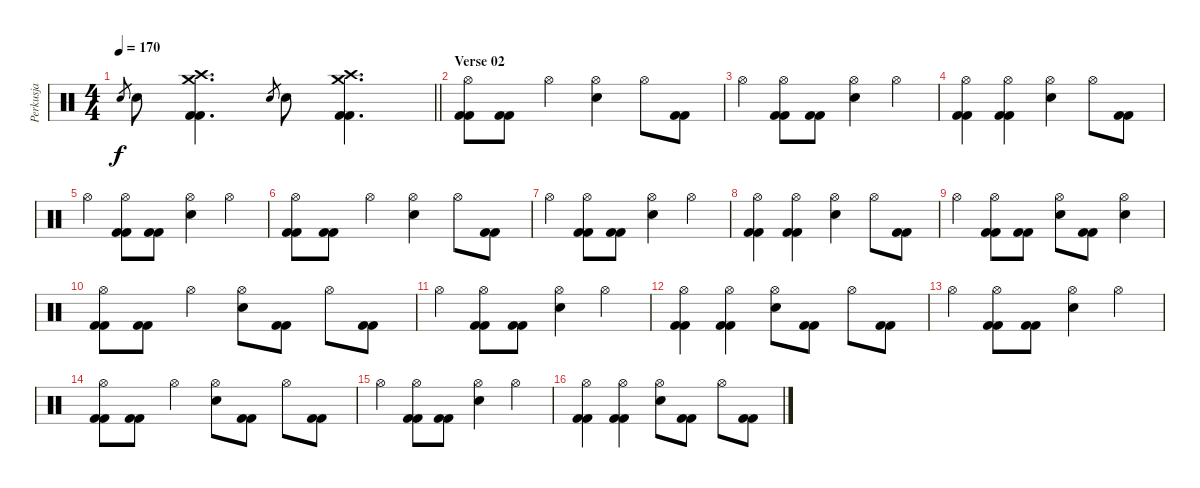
\track ("Perkusja" "Perkusja") {instrument percussion}
\staff {score}
\articulation defaults
\ts (4 4)
\tempo 170
\clef neutral
\barLineRight lightlight
\ks c "Electric Snare (hit)".8{gr dy f} "Electric Snare (hit)".8
("Crash medium (hit)" "Crash high (hit)" "Kick (hit) 2" "Kick (hit) 2").4{d} "Electric Snare (hit)".8{gr} "Electric Snare (hit)".8 ("Crash medium (hit)" "Crash high (hit)" "Kick (hit) 2" "Kick (hit) 2").4{d} |
\section ("" "Verse 02")
("Hi-Hat (open)" "Kick (hit) 2" "Kick (hit) 2").8 ("Kick (hit) 2" "Kick (hit) 2").8 "Hi-Hat (open)".4 ("Hi-Hat (open)" "Electric Snare (hit)").4 "Hi-Hat (open)".8 ("Kick (hit) 2" "Kick (hit) 2").8 |
"Hi-Hat (open)".4 ("Hi-Hat (open)" "Kick (hit) 2" "Kick (hit) 2").8 ("Kick (hit) 2" "Kick (hit) 2").8 ("Hi-Hat (open)" "Electric Snare (hit)").4 "Hi-Hat (open)".4 |
("Hi-Hat (open)" "Kick (hit) 2" "Kick (hit) 2").4 ("Hi-Hat (open)" "Kick (hit) 2" "Kick (hit) 2").4 ("Hi-Hat (open)" "Electric Snare (hit)").4 "Hi-Hat (open)".8 ("Kick (hit) 2" "Kick (hit) 2").8 |
"Hi-Hat (open)".4 ("Hi-Hat (open)" "Kick (hit) 2" "Kick (hit) 2").8 ("Kick (hit) 2" "Kick (hit) 2").8 ("Hi-Hat (open)" "Electric Snare (hit)").4 "Hi-Hat (open)".4 |
("Hi-Hat (open)" "Kick (hit) 2" "Kick (hit) 2").8 ("Kick (hit) 2" "Kick (hit) 2").8 "Hi-Hat (open)".4 ("Hi-Hat (open)" "Electric Snare (hit)").4 "Hi-Hat (open)".8 ("Kick (hit) 2" "Kick (hit) 2").8 |
"Hi-Hat (open)".4 ("Hi-Hat (open)" "Kick (hit) 2" "Kick (hit) 2").8 ("Kick (hit) 2" "Kick (hit) 2").8 ("Hi-Hat (open)" "Electric Snare (hit)").4 "Hi-Hat (open)".4 |
("Hi-Hat (open)" "Kick (hit) 2" "Kick (hit) 2").4 ("Hi-Hat (open)" "Kick (hit) 2" "Kick (hit) 2").4 ("Hi-Hat (open)" "Electric Snare (hit)").4 "Hi-Hat (open)".8 ("Kick (hit) 2" "Kick (hit) 2").8 |
"Hi-Hat (open)".4 ("Hi-Hat (open)" "Kick (hit) 2" "Kick (hit) 2").8 ("Kick (hit) 2" "Kick (hit) 2").8 ("Hi-Hat (open)" "Electric Snare (hit)").8 ("Kick (hit) 2" "Kick (hit) 2").8 ("Hi-Hat (open)" "Electric Snare (hit)").4 |
("Hi-Hat (open)" "Kick (hit) 2" "Kick (hit) 2").8 ("Kick (hit) 2" "Kick (hit) 2").8 "Hi-Hat (open)".4 ("Hi-Hat (open)" "Electric Snare (hit)").8 ("Kick (hit) 2" "Kick (hit) 2").8 "Hi-Hat (open)".8 ("Kick (hit) 2" "Kick (hit) 2").8 |
"Hi-Hat (open)".4 ("Hi-Hat (open)" "Kick (hit) 2" "Kick (hit) 2").8 ("Kick (hit) 2" "Kick (hit) 2").8 ("Hi-Hat (open)" "Electric Snare (hit)").4 "Hi-Hat (open)".4 |
("Hi-Hat (open)" "Kick (hit) 2" "Kick (hit) 2").4 ("Hi-Hat (open)" "Kick (hit) 2" "Kick (hit) 2").4 ("Hi-Hat (open)" "Electric Snare (hit)").8 ("Kick (hit) 2" "Kick (hit) 2").8 "Hi-Hat (open)".8 ("Kick (hit) 2" "Kick (hit) 2").8 |
"Hi-Hat (open)".4 ("Hi-Hat (open)" "Kick (hit) 2" "Kick (hit) 2").8 ("Kick (hit) 2" "Kick (hit) 2").8 ("Hi-Hat (open)" "Electric Snare (hit)").4 "Hi-Hat (open)".4 |
("Hi-Hat (open)" "Kick (hit) 2" "Kick (hit) 2").8 ("Kick (hit) 2" "Kick (hit) 2").8 "Hi-Hat (open)".4 ("Hi-Hat (open)" "Electric Snare (hit)").8 ("Kick (hit) 2" "Kick (hit) 2").8 "Hi-Hat (open)".8 ("Kick (hit) 2" "Kick (hit) 2").8 |
"Hi-Hat (open)".4 ("Hi-Hat (open)" "Kick (hit) 2" "Kick (hit) 2").8 ("Kick (hit) 2" "Kick (hit) 2").8 ("Hi-Hat (open)" "Electric Snare (hit)").4 "Hi-Hat (open)".4 |
("Hi-Hat (open)" "Kick (hit) 2" "Kick (hit) 2").4 ("Hi-Hat (open)" "Kick (hit) 2" "Kick (hit) 2").4 ("Hi-Hat (open)" "Electric Snare (hit)").8 ("Kick (hit) 2" "Kick (hit) 2").8 "Hi-Hat (open)".8 ("Kick (hit) 2" "Kick (hit) 2").8
